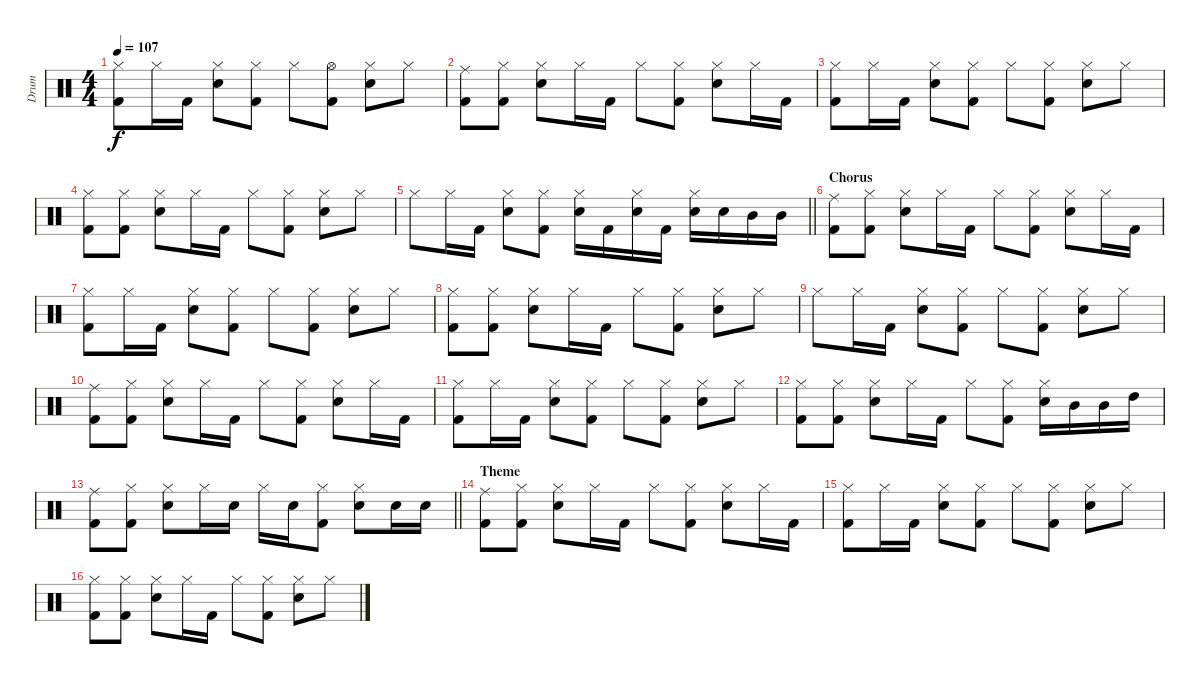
\track ("Drum" "Drum") {instrument percussion}
\staff {score}
\articulation defaults
\ts (4 4)
\tempo 107
\clef neutral
\ks c
("Hi-Hat (closed)" "Kick (hit) 2").8{dy f} "Hi-Hat (closed)".16 "Kick (hit) 2".16 ("Hi-Hat (closed)" "Snare (hit) 2").8 ("Hi-Hat (closed)" "Kick (hit) 2").8 "Hi-Hat (closed)".8 ("Hi-Hat (open)" "Kick (hit) 2").8 ("Hi-Hat (closed)" "Snare (hit) 2").8 "Hi-Hat (closed)".8 |
("Ride (middle)" "Kick (hit) 2").8 ("Hi-Hat (closed)" "Kick (hit) 2").8 ("Hi-Hat (closed)" "Snare (hit) 2").8 "Hi-Hat (closed)".16 "Kick (hit) 2".16 "Hi-Hat (closed)".8 ("Hi-Hat (closed)" "Kick (hit) 2").8 ("Hi-Hat (closed)" "Snare (hit) 2").8 "Hi-Hat (closed)".16 "Kick (hit) 2".16 |
("Hi-Hat (closed)" "Kick (hit) 2").8 "Hi-Hat (closed)".16 "Kick (hit) 2".16 ("Hi-Hat (closed)" "Snare (hit) 2").8 ("Hi-Hat (closed)" "Kick (hit) 2").8 "Hi-Hat (closed)".8 ("Hi-Hat (closed)" "Kick (hit) 2").8 ("Hi-Hat (closed)" "Snare (hit) 2").8 "Hi-Hat (closed)".8 |
("Hi-Hat (closed)" "Kick (hit) 2").8 ("Hi-Hat (closed)" "Kick (hit) 2").8 ("Hi-Hat (closed)" "Snare (hit) 2").8 "Hi-Hat (closed)".16 "Kick (hit) 2".16 "Hi-Hat (closed)".8 ("Hi-Hat (closed)" "Kick (hit) 2").8 ("Hi-Hat (closed)" "Snare (hit) 2").8 "Hi-Hat (closed)".8 |
\barLineRight lightlight "Hi-Hat (closed)".8 "Hi-Hat (closed)".16 "Kick (hit) 2".16
("Hi-Hat (closed)" "Snare (hit) 2").8 ("Hi-Hat (closed)" "Kick (hit) 2").8 ("Hi-Hat (closed)" "Snare (hit) 2").16 "Kick (hit) 2".16 ("Hi-Hat (closed)" "Snare (hit) 2").16 "Kick (hit) 2".16 ("Hi-Hat (closed)" "Snare (hit) 2").16 "Snare (hit) 2".16 "Mid Tom (hit)".16 "Mid Tom (hit)".16 |
\section ("" "Chorus")
("Ride (middle)" "Kick (hit) 2").8 ("Hi-Hat (closed)" "Kick (hit) 2").8 ("Hi-Hat (closed)" "Snare (hit) 2").8 "Hi-Hat (closed)".16 "Kick (hit) 2".16 "Hi-Hat (closed)".8 ("Hi-Hat (closed)" "Kick (hit) 2").8 ("Hi-Hat (closed)" "Snare (hit) 2").8 "Hi-Hat (closed)".16 "Kick (hit) 2".16 |
("Hi-Hat (closed)" "Kick (hit) 2").8 "Hi-Hat (closed)".16 "Kick (hit) 2".16 ("Hi-Hat (closed)" "Snare (hit) 2").8 ("Hi-Hat (closed)" "Kick (hit) 2").8 "Hi-Hat (closed)".8 ("Hi-Hat (closed)" "Kick (hit) 2").8 ("Hi-Hat (closed)" "Snare (hit) 2").8 "Hi-Hat (closed)".8 |
("Hi-Hat (closed)" "Kick (hit) 2").8 ("Hi-Hat (closed)" "Kick (hit) 2").8 ("Hi-Hat (closed)" "Snare (hit) 2").8 "Hi-Hat (closed)".16 "Kick (hit) 2".16 "Hi-Hat (closed)".8 ("Hi-Hat (closed)" "Kick (hit) 2").8 ("Hi-Hat (closed)" "Snare (hit) 2").8 "Hi-Hat (closed)".8 |
"Hi-Hat (closed)".8 "Hi-Hat (closed)".16 "Kick (hit) 2".16 ("Hi-Hat (closed)" "Snare (hit) 2").8 ("Hi-Hat (closed)" "Kick (hit) 2").8 "Hi-Hat (closed)".8 ("Hi-Hat (closed)" "Kick (hit) 2").8 ("Hi-Hat (closed)" "Snare (hit) 2").8 "Hi-Hat (closed)".8 |
("Ride (middle)" "Kick (hit) 2").8 ("Hi-Hat (closed)" "Kick (hit) 2").8 ("Hi-Hat (closed)" "Snare (hit) 2").8 "Hi-Hat (closed)".16 "Kick (hit) 2".16 "Hi-Hat (closed)".8 ("Hi-Hat (closed)" "Kick (hit) 2").8 ("Hi-Hat (closed)" "Snare (hit) 2").8 "Hi-Hat (closed)".16 "Kick (hit) 2".16 |
("Hi-Hat (closed)" "Kick (hit) 2").8 "Hi-Hat (closed)".16 "Kick (hit) 2".16 ("Hi-Hat (closed)" "Snare (hit) 2").8 ("Hi-Hat (closed)" "Kick (hit) 2").8 "Hi-Hat (closed)".8 ("Hi-Hat (closed)" "Kick (hit) 2").8 ("Hi-Hat (closed)" "Snare (hit) 2").8 "Hi-Hat (closed)".8 |
("Hi-Hat (closed)" "Kick (hit) 2").8 ("Hi-Hat (closed)" "Kick (hit) 2").8 ("Hi-Hat (closed)" "Snare (hit) 2").8 "Hi-Hat (closed)".16 "Kick (hit) 2".16 "Hi-Hat (closed)".8 ("Hi-Hat (closed)" "Kick (hit) 2").8 ("Hi-Hat (closed)" "Snare (hit) 2").16 "Mid Tom (hit)".16 "Mid Tom (hit)".16 "High Tom (hit)".16 |
\barLineRight lightlight
("Ride (middle)" "Kick (hit) 2").8 ("Hi-Hat (closed)" "Kick (hit) 2").8 ("Hi-Hat (closed)" "Snare (hit) 2").8 "Hi-Hat (closed)".16 "Snare (hit) 2".16 "Hi-Hat (closed)".16 "Snare (hit) 2".16 ("Hi-Hat (closed)" "Kick (hit) 2").8 ("Hi-Hat (closed)" "Snare (hit) 2").8 "Snare (hit) 2".16 "Snare (hit) 2".16 |
\section ("" "Theme")
("Ride (middle)" "Kick (hit) 2").8 ("Hi-Hat (closed)" "Kick (hit) 2").8 ("Hi-Hat (closed)" "Snare (hit) 2").8 "Hi-Hat (closed)".16 "Kick (hit) 2".16 "Hi-Hat (closed)".8 ("Hi-Hat (closed)" "Kick (hit) 2").8 ("Hi-Hat (closed)" "Snare (hit) 2").8 "Hi-Hat (closed)".16 "Kick (hit) 2".16 |
("Hi-Hat (closed)" "Kick (hit) 2").8 "Hi-Hat (closed)".16 "Kick (hit) 2".16 ("Hi-Hat (closed)" "Snare (hit) 2").8 ("Hi-Hat (closed)" "Kick (hit) 2").8 "Hi-Hat (closed)".8 ("Hi-Hat (closed)" "Kick (hit) 2").8 ("Hi-Hat (closed)" "Snare (hit) 2").8 "Hi-Hat (closed)".8 |
("Hi-Hat (closed)" "Kick (hit) 2").8 ("Hi-Hat (closed)" "Kick (hit) 2").8 ("Hi-Hat (closed)" "Snare (hit) 2").8 "Hi-Hat (closed)".16 "Kick (hit) 2".16 "Hi-Hat (closed)".8 ("Hi-Hat (closed)" "Kick (hit) 2").8 ("Hi-Hat (closed)" "Snare (hit) 2").8 "Hi-Hat (closed)".8
